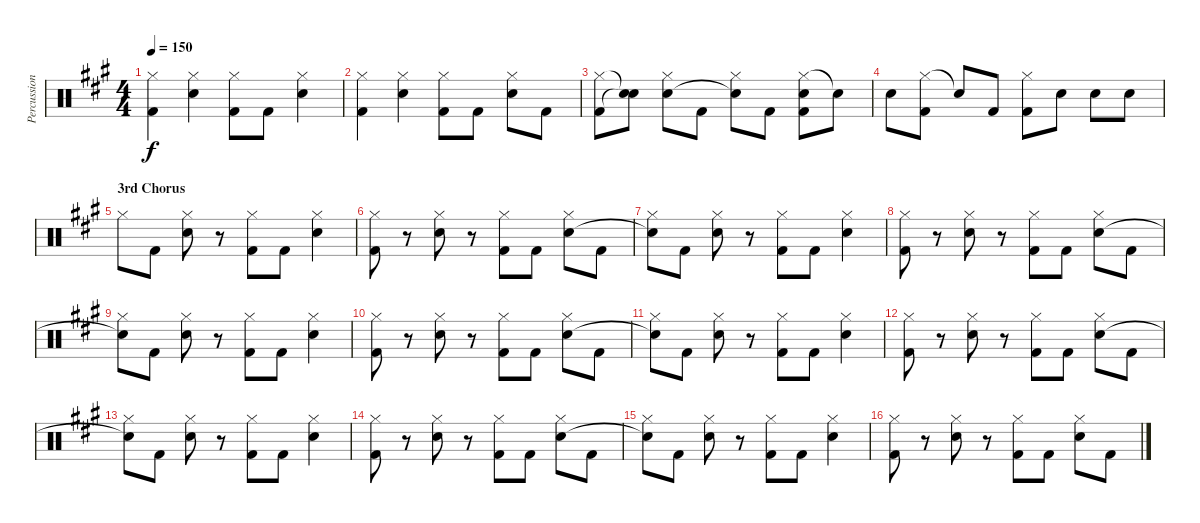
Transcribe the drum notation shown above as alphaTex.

\track ("Percussion" "Percussion") {instrument percussion}
\staff {score}
\articulation defaults
\ts (4 4)
\tempo 150
\clef neutral
\ks f#minor
("Hi-Hat (closed)" "Kick (hit) 2").4{dy f} ("Hi-Hat (closed)" "Snare (hit) 2").4 ("Hi-Hat (closed)" "Kick (hit) 2").8 "Kick (hit) 2".8 ("Hi-Hat (closed)" "Snare (hit) 2").4 |
("Hi-Hat (closed)" "Kick (hit) 2").4 ("Hi-Hat (closed)" "Snare (hit) 2").4 ("Hi-Hat (closed)" "Kick (hit) 2").8 "Kick (hit) 2".8 ("Hi-Hat (closed)" "Snare (hit) 2").8 "Kick (hit) 2".8 |
("Hi-Hat (closed)" "Kick (hit) 2").8 ("Snare (hit)"{t} "Snare (hit)"{t}).8 ("Hi-Hat (closed)" "Snare (hit) 2").8 "Kick (hit) 2".8 ("Hi-Hat (closed)" "Snare (hit)"{t}).8 "Kick (hit) 2".8 ("Hi-Hat (closed)" "Snare (hit) 2" "Kick (hit) 2").8 "Snare (hit)"{t}.8 |
"Snare (hit) 2".8 ("Hi-Hat (closed)" "Kick (hit) 2").8 "Snare (hit)"{t}.8 "Kick (hit) 2".8 ("Hi-Hat (closed)" "Kick (hit) 2").8 "Snare (hit) 2".8 "Snare (hit) 2".8 "Snare (hit) 2".8 |
\section ("" "3rd Chorus")
"Hi-Hat (closed)".8 "Kick (hit) 2".8 ("Hi-Hat (closed)" "Snare (hit) 2").8 r.8 ("Hi-Hat (closed)" "Kick (hit) 2").8 "Kick (hit) 2".8 ("Hi-Hat (closed)" "Snare (hit) 2").4 |
("Hi-Hat (closed)" "Kick (hit) 2").8 r.8 ("Hi-Hat (closed)" "Snare (hit) 2").8 r.8 ("Hi-Hat (closed)" "Kick (hit) 2").8 "Kick (hit) 2".8 ("Hi-Hat (closed)" "Snare (hit) 2").8 "Kick (hit) 2".8 |
("Hi-Hat (closed)" "Snare (hit)"{t}).8 "Kick (hit) 2".8 ("Hi-Hat (closed)" "Snare (hit) 2").8 r.8 ("Hi-Hat (closed)" "Kick (hit) 2").8 "Kick (hit) 2".8 ("Hi-Hat (closed)" "Snare (hit) 2").4 |
("Hi-Hat (closed)" "Kick (hit) 2").8 r.8 ("Hi-Hat (closed)" "Snare (hit) 2").8 r.8 ("Hi-Hat (closed)" "Kick (hit) 2").8 "Kick (hit) 2".8 ("Hi-Hat (closed)" "Snare (hit) 2").8 "Kick (hit) 2".8 |
("Hi-Hat (closed)" "Snare (hit)"{t}).8 "Kick (hit) 2".8 ("Hi-Hat (closed)" "Snare (hit) 2").8 r.8 ("Hi-Hat (closed)" "Kick (hit) 2").8 "Kick (hit) 2".8 ("Hi-Hat (closed)" "Snare (hit) 2").4 |
("Hi-Hat (closed)" "Kick (hit) 2").8 r.8 ("Hi-Hat (closed)" "Snare (hit) 2").8 r.8 ("Hi-Hat (closed)" "Kick (hit) 2").8 "Kick (hit) 2".8 ("Hi-Hat (closed)" "Snare (hit) 2").8 "Kick (hit) 2".8 |
("Hi-Hat (closed)" "Snare (hit)"{t}).8 "Kick (hit) 2".8 ("Hi-Hat (closed)" "Snare (hit) 2").8 r.8 ("Hi-Hat (closed)" "Kick (hit) 2").8 "Kick (hit) 2".8 ("Hi-Hat (closed)" "Snare (hit) 2").4 |
("Hi-Hat (closed)" "Kick (hit) 2").8 r.8 ("Hi-Hat (closed)" "Snare (hit) 2").8 r.8 ("Hi-Hat (closed)" "Kick (hit) 2").8 "Kick (hit) 2".8 ("Hi-Hat (closed)" "Snare (hit) 2").8 "Kick (hit) 2".8 |
("Hi-Hat (closed)" "Snare (hit)"{t}).8 "Kick (hit) 2".8 ("Hi-Hat (closed)" "Snare (hit) 2").8 r.8 ("Hi-Hat (closed)" "Kick (hit) 2").8 "Kick (hit) 2".8 ("Hi-Hat (closed)" "Snare (hit) 2").4 |
("Hi-Hat (closed)" "Kick (hit) 2").8 r.8 ("Hi-Hat (closed)" "Snare (hit) 2").8 r.8 ("Hi-Hat (closed)" "Kick (hit) 2").8 "Kick (hit) 2".8 ("Hi-Hat (closed)" "Snare (hit) 2").8 "Kick (hit) 2".8 |
("Hi-Hat (closed)" "Snare (hit)"{t}).8 "Kick (hit) 2".8 ("Hi-Hat (closed)" "Snare (hit) 2").8 r.8 ("Hi-Hat (closed)" "Kick (hit) 2").8 "Kick (hit) 2".8 ("Hi-Hat (closed)" "Snare (hit) 2").4 |
("Hi-Hat (closed)" "Kick (hit) 2").8 r.8 ("Hi-Hat (closed)" "Snare (hit) 2").8 r.8 ("Hi-Hat (closed)" "Kick (hit) 2").8 "Kick (hit) 2".8 ("Hi-Hat (closed)" "Snare (hit) 2").8 "Kick (hit) 2".8
